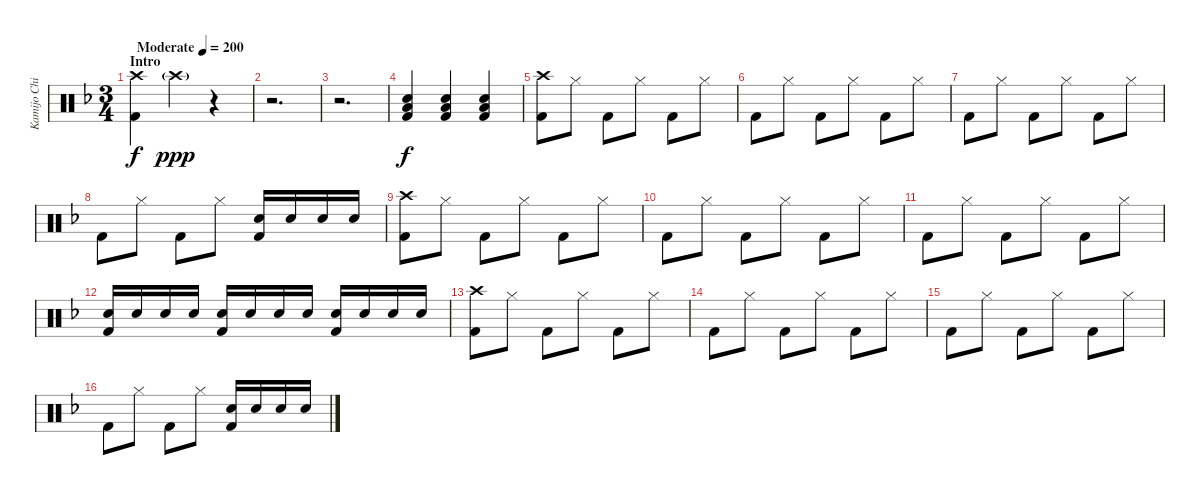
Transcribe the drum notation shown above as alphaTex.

\track ("Kamijo Chihiro" "Kamijo Chi") {instrument percussion}
\staff {score}
\articulation defaults
\ts (3 4)
\section ("" "Intro")
\tempo (200 "Moderate")
\clef neutral
\ks dminor
("Crash high (hit)" "Kick (hit) 2").4{dy f} "Crash high (hit)"{g}.4{dy ppp} r.4 |
r.2{d} |
r.2{d} |
("Snare (hit) 2" "Low Floor Tom (hit)" "Kick (hit) 2").4{dy f} ("Snare (hit) 2" "Low Floor Tom (hit)" "Kick (hit) 2").4 ("Snare (hit) 2" "Low Floor Tom (hit)" "Kick (hit) 2").4 |
("Crash high (hit)" "Kick (hit) 2").8 "Hi-Hat (closed)".8 "Kick (hit) 2".8 "Hi-Hat (closed)".8 "Kick (hit) 2".8 "Hi-Hat (closed)".8 |
"Kick (hit) 2".8 "Hi-Hat (closed)".8 "Kick (hit) 2".8 "Hi-Hat (closed)".8 "Kick (hit) 2".8 "Hi-Hat (closed)".8 |
"Kick (hit) 2".8 "Hi-Hat (closed)".8 "Kick (hit) 2".8 "Hi-Hat (closed)".8 "Kick (hit) 2".8 "Hi-Hat (closed)".8 |
"Kick (hit) 2".8 "Hi-Hat (closed)".8 "Kick (hit) 2".8 "Hi-Hat (closed)".8 ("Snare (hit) 2" "Kick (hit) 2").16 "Snare (hit) 2".16 "Snare (hit) 2".16 "Snare (hit) 2".16 |
("Crash high (hit)" "Kick (hit) 2").8 "Hi-Hat (closed)".8 "Kick (hit) 2".8 "Hi-Hat (closed)".8 "Kick (hit) 2".8 "Hi-Hat (closed)".8 |
"Kick (hit) 2".8 "Hi-Hat (closed)".8 "Kick (hit) 2".8 "Hi-Hat (closed)".8 "Kick (hit) 2".8 "Hi-Hat (closed)".8 |
"Kick (hit) 2".8 "Hi-Hat (closed)".8 "Kick (hit) 2".8 "Hi-Hat (closed)".8 "Kick (hit) 2".8 "Hi-Hat (closed)".8 |
("Snare (hit) 2" "Kick (hit) 2").16 "Snare (hit) 2".16 "Snare (hit) 2".16 "Snare (hit) 2".16 ("Snare (hit) 2" "Kick (hit) 2").16 "Snare (hit) 2".16 "Snare (hit) 2".16 "Snare (hit) 2".16 ("Snare (hit) 2" "Kick (hit) 2").16 "Snare (hit) 2".16 "Snare (hit) 2".16 "Snare (hit) 2".16 |
("Crash high (hit)" "Kick (hit) 2").8 "Hi-Hat (closed)".8 "Kick (hit) 2".8 "Hi-Hat (closed)".8 "Kick (hit) 2".8 "Hi-Hat (closed)".8 |
"Kick (hit) 2".8 "Hi-Hat (closed)".8 "Kick (hit) 2".8 "Hi-Hat (closed)".8 "Kick (hit) 2".8 "Hi-Hat (closed)".8 |
"Kick (hit) 2".8 "Hi-Hat (closed)".8 "Kick (hit) 2".8 "Hi-Hat (closed)".8 "Kick (hit) 2".8 "Hi-Hat (closed)".8 |
"Kick (hit) 2".8 "Hi-Hat (closed)".8 "Kick (hit) 2".8 "Hi-Hat (closed)".8 ("Snare (hit) 2" "Kick (hit) 2").16 "Snare (hit) 2".16 "Snare (hit) 2".16 "Snare (hit) 2".16
